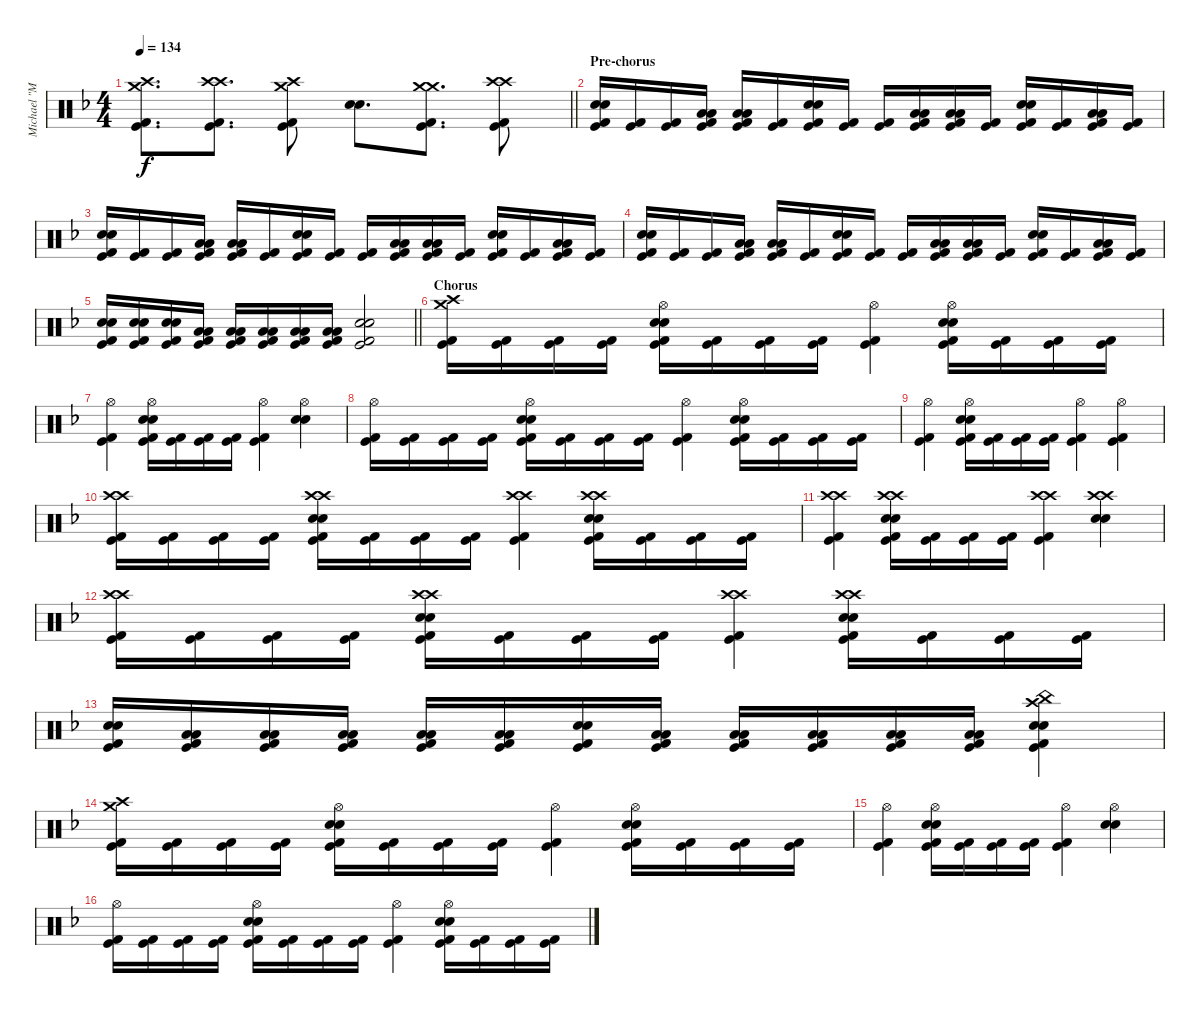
\track ("Michael \"Moose\" Thomas" "Michael \"M") {instrument percussion}
\staff {score}
\articulation defaults
\ts (4 4)
\tempo 134
\clef neutral
\barLineRight lightlight
\ks f
("Crash high (hit)" "Crash medium (hit)" "Kick (hit)" "Kick (hit) 2").8{d dy f} ("Crash high (hit)" "Crash high (hit)" "Kick (hit)" "Kick (hit) 2").8{d} ("Crash high (hit)" "Crash medium (hit)" "Kick (hit)" "Kick (hit) 2").8 ("Electric Snare (hit)" "Electric Snare (hit)").8{d} ("Crash medium (hit)" "Crash medium (hit)" "Kick (hit)" "Kick (hit) 2").8{d} ("Crash high (hit)" "Crash high (hit)" "Kick (hit)" "Kick (hit) 2").8 |
\section ("" "Pre-chorus")
("Electric Snare (hit)" "Electric Snare (hit)" "Kick (hit)" "Kick (hit) 2").16 ("Kick (hit)" "Kick (hit) 2").16 ("Kick (hit)" "Kick (hit) 2").16 ("Low Tom (hit)" "Low Tom (hit)" "Kick (hit)" "Kick (hit) 2").16 ("Low Tom (hit)" "Low Floor Tom (hit)" "Kick (hit)" "Kick (hit) 2").16 ("Kick (hit)" "Kick (hit) 2").16 ("Electric Snare (hit)" "Electric Snare (hit)" "Kick (hit)" "Kick (hit) 2").16 ("Kick (hit)" "Kick (hit) 2").16 ("Kick (hit)" "Kick (hit) 2").16 ("Low Tom (hit)" "Low Floor Tom (hit)" "Kick (hit)" "Kick (hit) 2").16 ("Low Floor Tom (hit)" "Low Floor Tom (hit)" "Kick (hit)" "Kick (hit) 2").16 ("Kick (hit)" "Kick (hit) 2").16 ("Electric Snare (hit)" "Electric Snare (hit)" "Kick (hit)" "Kick (hit) 2").16 ("Kick (hit)" "Kick (hit) 2").16 ("Low Floor Tom (hit)" "Low Floor Tom (hit)" "Kick (hit)" "Kick (hit) 2").16 ("Kick (hit)" "Kick (hit) 2").16 |
("Electric Snare (hit)" "Electric Snare (hit)" "Kick (hit)" "Kick (hit) 2").16 ("Kick (hit)" "Kick (hit) 2").16 ("Kick (hit)" "Kick (hit) 2").16 ("Low Tom (hit)" "Low Tom (hit)" "Kick (hit)" "Kick (hit) 2").16 ("Low Tom (hit)" "Low Floor Tom (hit)" "Kick (hit)" "Kick (hit) 2").16 ("Kick (hit)" "Kick (hit) 2").16 ("Electric Snare (hit)" "Electric Snare (hit)" "Kick (hit)" "Kick (hit) 2").16 ("Kick (hit)" "Kick (hit) 2").16 ("Kick (hit)" "Kick (hit) 2").16 ("Low Tom (hit)" "Low Floor Tom (hit)" "Kick (hit)" "Kick (hit) 2").16 ("Low Floor Tom (hit)" "Low Floor Tom (hit)" "Kick (hit)" "Kick (hit) 2").16 ("Kick (hit)" "Kick (hit) 2").16 ("Electric Snare (hit)" "Electric Snare (hit)" "Kick (hit)" "Kick (hit) 2").16 ("Kick (hit)" "Kick (hit) 2").16 ("Low Floor Tom (hit)" "Low Floor Tom (hit)" "Kick (hit)" "Kick (hit) 2").16 ("Kick (hit)" "Kick (hit) 2").16 |
("Electric Snare (hit)" "Electric Snare (hit)" "Kick (hit)" "Kick (hit) 2").16 ("Kick (hit)" "Kick (hit) 2").16 ("Kick (hit)" "Kick (hit) 2").16 ("Low Tom (hit)" "Low Tom (hit)" "Kick (hit)" "Kick (hit) 2").16 ("Low Tom (hit)" "Low Floor Tom (hit)" "Kick (hit)" "Kick (hit) 2").16 ("Kick (hit)" "Kick (hit) 2").16 ("Electric Snare (hit)" "Electric Snare (hit)" "Kick (hit)" "Kick (hit) 2").16 ("Kick (hit)" "Kick (hit) 2").16 ("Kick (hit)" "Kick (hit) 2").16 ("Low Tom (hit)" "Low Floor Tom (hit)" "Kick (hit)" "Kick (hit) 2").16 ("Low Floor Tom (hit)" "Low Floor Tom (hit)" "Kick (hit)" "Kick (hit) 2").16 ("Kick (hit)" "Kick (hit) 2").16 ("Electric Snare (hit)" "Electric Snare (hit)" "Kick (hit)" "Kick (hit) 2").16 ("Kick (hit)" "Kick (hit) 2").16 ("Low Floor Tom (hit)" "Low Floor Tom (hit)" "Kick (hit)" "Kick (hit) 2").16 ("Kick (hit)" "Kick (hit) 2").16 |
\barLineRight lightlight
("Electric Snare (hit)" "Electric Snare (hit)" "Kick (hit)" "Kick (hit) 2").16 ("Electric Snare (hit)" "Electric Snare (hit)" "Kick (hit)" "Kick (hit) 2").16 ("Electric Snare (hit)" "Electric Snare (hit)" "Kick (hit)" "Kick (hit) 2").16 ("Low Tom (hit)" "Low Tom (hit)" "Kick (hit)" "Kick (hit) 2").16 ("Low Tom (hit)" "Low Floor Tom (hit)" "Kick (hit)" "Kick (hit) 2").16 ("Low Floor Tom (hit)" "Low Floor Tom (hit)" "Kick (hit)" "Kick (hit) 2").16 ("Low Tom (hit)" "Low Floor Tom (hit)" "Kick (hit)" "Kick (hit) 2").16 ("Low Floor Tom (hit)" "Low Floor Tom (hit)" "Kick (hit)" "Kick (hit) 2").16 ("Electric Snare (hit)" "Electric Snare (hit)" "Kick (hit)" "Kick (hit) 2").2 |
\section ("" "Chorus")
("Crash high (hit)" "Crash medium (hit)" "Kick (hit)" "Kick (hit) 2").16 ("Kick (hit)" "Kick (hit) 2").16 ("Kick (hit)" "Kick (hit) 2").16 ("Kick (hit)" "Kick (hit) 2").16 ("Hi-Hat (open)" "Electric Snare (hit)" "Electric Snare (hit)" "Kick (hit)" "Kick (hit) 2").16 ("Kick (hit)" "Kick (hit) 2").16 ("Kick (hit)" "Kick (hit) 2").16 ("Kick (hit)" "Kick (hit) 2").16 ("Hi-Hat (open)" "Kick (hit)" "Kick (hit) 2").4 ("Hi-Hat (open)" "Electric Snare (hit)" "Electric Snare (hit)" "Kick (hit)" "Kick (hit) 2").16 ("Kick (hit)" "Kick (hit) 2").16 ("Kick (hit)" "Kick (hit) 2").16 ("Kick (hit)" "Kick (hit) 2").16 |
("Hi-Hat (open)" "Kick (hit)" "Kick (hit) 2").4 ("Hi-Hat (open)" "Electric Snare (hit)" "Electric Snare (hit)" "Kick (hit)" "Kick (hit) 2").16 ("Kick (hit)" "Kick (hit) 2").16 ("Kick (hit)" "Kick (hit) 2").16 ("Kick (hit)" "Kick (hit) 2").16 ("Hi-Hat (open)" "Kick (hit)" "Kick (hit) 2").4 ("Hi-Hat (open)" "Electric Snare (hit)" "Electric Snare (hit)").4 |
("Hi-Hat (open)" "Kick (hit)" "Kick (hit) 2").16 ("Kick (hit)" "Kick (hit) 2").16 ("Kick (hit)" "Kick (hit) 2").16 ("Kick (hit)" "Kick (hit) 2").16 ("Hi-Hat (open)" "Electric Snare (hit)" "Electric Snare (hit)" "Kick (hit)" "Kick (hit) 2").16 ("Kick (hit)" "Kick (hit) 2").16 ("Kick (hit)" "Kick (hit) 2").16 ("Kick (hit)" "Kick (hit) 2").16 ("Hi-Hat (open)" "Kick (hit)" "Kick (hit) 2").4 ("Hi-Hat (open)" "Electric Snare (hit)" "Electric Snare (hit)" "Kick (hit)" "Kick (hit) 2").16 ("Kick (hit)" "Kick (hit) 2").16 ("Kick (hit)" "Kick (hit) 2").16 ("Kick (hit)" "Kick (hit) 2").16 |
("Hi-Hat (open)" "Kick (hit)" "Kick (hit) 2").4 ("Hi-Hat (open)" "Electric Snare (hit)" "Electric Snare (hit)" "Kick (hit)" "Kick (hit) 2").16 ("Kick (hit)" "Kick (hit) 2").16 ("Kick (hit)" "Kick (hit) 2").16 ("Kick (hit)" "Kick (hit) 2").16 ("Hi-Hat (open)" "Kick (hit)" "Kick (hit) 2").4 ("Hi-Hat (open)" "Kick (hit)" "Kick (hit) 2").4 |
("Crash high (hit)" "Crash high (hit)" "Kick (hit)" "Kick (hit) 2").16 ("Kick (hit)" "Kick (hit) 2").16 ("Kick (hit)" "Kick (hit) 2").16 ("Kick (hit)" "Kick (hit) 2").16 ("Crash high (hit)" "Crash high (hit)" "Electric Snare (hit)" "Electric Snare (hit)" "Kick (hit)" "Kick (hit) 2").16 ("Kick (hit)" "Kick (hit) 2").16 ("Kick (hit)" "Kick (hit) 2").16 ("Kick (hit)" "Kick (hit) 2").16 ("Crash high (hit)" "Crash high (hit)" "Kick (hit)" "Kick (hit) 2").4 ("Crash high (hit)" "Crash high (hit)" "Electric Snare (hit)" "Electric Snare (hit)" "Kick (hit)" "Kick (hit) 2").16 ("Kick (hit)" "Kick (hit) 2").16 ("Kick (hit)" "Kick (hit) 2").16 ("Kick (hit)" "Kick (hit) 2").16 |
("Crash high (hit)" "Crash high (hit)" "Kick (hit)" "Kick (hit) 2").4 ("Crash high (hit)" "Crash high (hit)" "Electric Snare (hit)" "Electric Snare (hit)" "Kick (hit)" "Kick (hit) 2").16 ("Kick (hit)" "Kick (hit) 2").16 ("Kick (hit)" "Kick (hit) 2").16 ("Kick (hit)" "Kick (hit) 2").16 ("Crash high (hit)" "Crash high (hit)" "Kick (hit)" "Kick (hit) 2").4 ("Crash high (hit)" "Crash high (hit)" "Electric Snare (hit)" "Electric Snare (hit)").4 |
("Crash high (hit)" "Crash high (hit)" "Kick (hit)" "Kick (hit) 2").16 ("Kick (hit)" "Kick (hit) 2").16 ("Kick (hit)" "Kick (hit) 2").16 ("Kick (hit)" "Kick (hit) 2").16 ("Crash high (hit)" "Crash high (hit)" "Electric Snare (hit)" "Electric Snare (hit)" "Kick (hit)" "Kick (hit) 2").16 ("Kick (hit)" "Kick (hit) 2").16 ("Kick (hit)" "Kick (hit) 2").16 ("Kick (hit)" "Kick (hit) 2").16 ("Crash high (hit)" "Crash high (hit)" "Kick (hit)" "Kick (hit) 2").4 ("Crash high (hit)" "Crash high (hit)" "Electric Snare (hit)" "Electric Snare (hit)" "Kick (hit)" "Kick (hit) 2").16 ("Kick (hit)" "Kick (hit) 2").16 ("Kick (hit)" "Kick (hit) 2").16 ("Kick (hit)" "Kick (hit) 2").16 |
("Electric Snare (hit)" "Electric Snare (hit)" "Kick (hit)" "Kick (hit) 2").16 ("Low Tom (hit)" "Low Tom (hit)" "Kick (hit)" "Kick (hit) 2").16 ("Low Tom (hit)" "Low Floor Tom (hit)" "Kick (hit)" "Kick (hit) 2").16 ("Low Floor Tom (hit)" "Low Floor Tom (hit)" "Kick (hit)" "Kick (hit) 2").16 ("Low Tom (hit)" "Low Floor Tom (hit)" "Kick (hit)" "Kick (hit) 2").16 ("Low Floor Tom (hit)" "Low Floor Tom (hit)" "Kick (hit)" "Kick (hit) 2").16 ("Electric Snare (hit)" "Electric Snare (hit)" "Kick (hit)" "Kick (hit) 2").16 ("Low Tom (hit)" "Low Tom (hit)" "Kick (hit)" "Kick (hit) 2").16 ("Low Tom (hit)" "Low Floor Tom (hit)" "Kick (hit)" "Kick (hit) 2").16 ("Low Floor Tom (hit)" "Low Floor Tom (hit)" "Kick (hit)" "Kick (hit) 2").16 ("Low Tom (hit)" "Low Floor Tom (hit)" "Kick (hit)" "Kick (hit) 2").16 ("Low Floor Tom (hit)" "Low Floor Tom (hit)" "Kick (hit)" "Kick (hit) 2").16 ("Crash high (hit)" "China (hit)" "Electric Snare (hit)" "Electric Snare (hit)" "Kick (hit)" "Kick (hit) 2").4 |
("Crash high (hit)" "Crash medium (hit)" "Kick (hit)" "Kick (hit) 2").16 ("Kick (hit)" "Kick (hit) 2").16 ("Kick (hit)" "Kick (hit) 2").16 ("Kick (hit)" "Kick (hit) 2").16 ("Hi-Hat (open)" "Electric Snare (hit)" "Electric Snare (hit)" "Kick (hit)" "Kick (hit) 2").16 ("Kick (hit)" "Kick (hit) 2").16 ("Kick (hit)" "Kick (hit) 2").16 ("Kick (hit)" "Kick (hit) 2").16 ("Hi-Hat (open)" "Kick (hit)" "Kick (hit) 2").4 ("Hi-Hat (open)" "Electric Snare (hit)" "Electric Snare (hit)" "Kick (hit)" "Kick (hit) 2").16 ("Kick (hit)" "Kick (hit) 2").16 ("Kick (hit)" "Kick (hit) 2").16 ("Kick (hit)" "Kick (hit) 2").16 |
("Hi-Hat (open)" "Kick (hit)" "Kick (hit) 2").4 ("Hi-Hat (open)" "Electric Snare (hit)" "Electric Snare (hit)" "Kick (hit)" "Kick (hit) 2").16 ("Kick (hit)" "Kick (hit) 2").16 ("Kick (hit)" "Kick (hit) 2").16 ("Kick (hit)" "Kick (hit) 2").16 ("Hi-Hat (open)" "Kick (hit)" "Kick (hit) 2").4 ("Hi-Hat (open)" "Electric Snare (hit)" "Electric Snare (hit)").4 |
("Hi-Hat (open)" "Kick (hit)" "Kick (hit) 2").16 ("Kick (hit)" "Kick (hit) 2").16 ("Kick (hit)" "Kick (hit) 2").16 ("Kick (hit)" "Kick (hit) 2").16 ("Hi-Hat (open)" "Electric Snare (hit)" "Electric Snare (hit)" "Kick (hit)" "Kick (hit) 2").16 ("Kick (hit)" "Kick (hit) 2").16 ("Kick (hit)" "Kick (hit) 2").16 ("Kick (hit)" "Kick (hit) 2").16 ("Hi-Hat (open)" "Kick (hit)" "Kick (hit) 2").4 ("Hi-Hat (open)" "Electric Snare (hit)" "Electric Snare (hit)" "Kick (hit)" "Kick (hit) 2").16 ("Kick (hit)" "Kick (hit) 2").16 ("Kick (hit)" "Kick (hit) 2").16 ("Kick (hit)" "Kick (hit) 2").16
